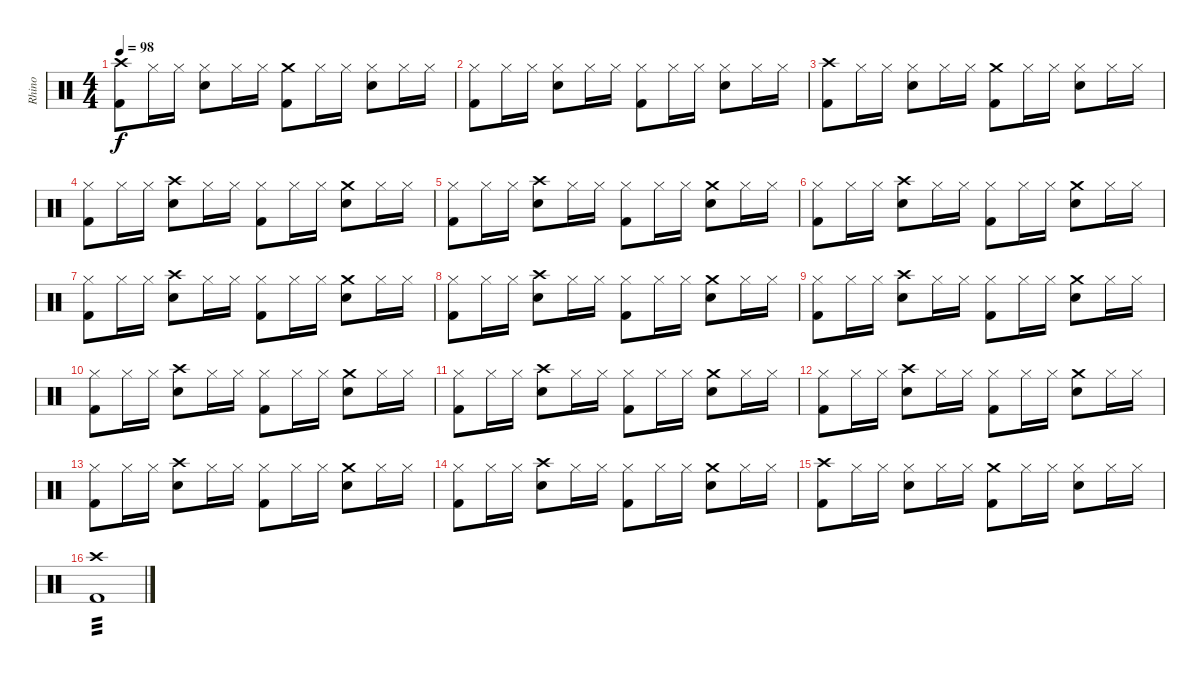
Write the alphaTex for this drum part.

\track ("Rhino" "Rhino") {instrument percussion}
\staff {score}
\articulation defaults
\ts (4 4)
\tempo 98
\clef neutral
\ks c
("Crash high (hit)" "Kick (hit) 2").8{dy f} "Hi-Hat (closed)".16 "Hi-Hat (closed)".16 ("Hi-Hat (closed)" "Snare (hit) 2").8 "Hi-Hat (closed)".16 "Hi-Hat (closed)".16 ("Crash medium (hit)" "Kick (hit) 2").8 "Hi-Hat (closed)".16 "Hi-Hat (closed)".16 ("Hi-Hat (closed)" "Snare (hit) 2").8 "Hi-Hat (closed)".16 "Hi-Hat (closed)".16 |
("Hi-Hat (closed)" "Kick (hit) 2").8 "Hi-Hat (closed)".16 "Hi-Hat (closed)".16 ("Hi-Hat (closed)" "Snare (hit) 2").8 "Hi-Hat (closed)".16 "Hi-Hat (closed)".16 ("Hi-Hat (closed)" "Kick (hit) 2").8 "Hi-Hat (closed)".16 "Hi-Hat (closed)".16 ("Hi-Hat (closed)" "Snare (hit) 2").8 "Hi-Hat (closed)".16 "Hi-Hat (closed)".16 |
("Crash high (hit)" "Kick (hit) 2").8 "Hi-Hat (closed)".16 "Hi-Hat (closed)".16 ("Hi-Hat (closed)" "Snare (hit) 2").8 "Hi-Hat (closed)".16 "Hi-Hat (closed)".16 ("Crash medium (hit)" "Kick (hit) 2").8 "Hi-Hat (closed)".16 "Hi-Hat (closed)".16 ("Hi-Hat (closed)" "Snare (hit) 2").8 "Hi-Hat (closed)".16 "Hi-Hat (closed)".16 |
("Hi-Hat (closed)" "Kick (hit) 2").8 "Hi-Hat (closed)".16 "Hi-Hat (closed)".16 ("Crash high (hit)" "Snare (hit) 2").8 "Hi-Hat (closed)".16 "Hi-Hat (closed)".16 ("Hi-Hat (closed)" "Kick (hit) 2").8 "Hi-Hat (closed)".16 "Hi-Hat (closed)".16 ("Crash medium (hit)" "Snare (hit) 2").8 "Hi-Hat (closed)".16 "Hi-Hat (closed)".16 |
("Hi-Hat (closed)" "Kick (hit) 2").8 "Hi-Hat (closed)".16 "Hi-Hat (closed)".16 ("Crash high (hit)" "Snare (hit) 2").8 "Hi-Hat (closed)".16 "Hi-Hat (closed)".16 ("Hi-Hat (closed)" "Kick (hit) 2").8 "Hi-Hat (closed)".16 "Hi-Hat (closed)".16 ("Crash medium (hit)" "Snare (hit) 2").8 "Hi-Hat (closed)".16 "Hi-Hat (closed)".16 |
("Hi-Hat (closed)" "Kick (hit) 2").8 "Hi-Hat (closed)".16 "Hi-Hat (closed)".16 ("Crash high (hit)" "Snare (hit) 2").8 "Hi-Hat (closed)".16 "Hi-Hat (closed)".16 ("Hi-Hat (closed)" "Kick (hit) 2").8 "Hi-Hat (closed)".16 "Hi-Hat (closed)".16 ("Crash medium (hit)" "Snare (hit) 2").8 "Hi-Hat (closed)".16 "Hi-Hat (closed)".16 |
("Hi-Hat (closed)" "Kick (hit) 2").8 "Hi-Hat (closed)".16 "Hi-Hat (closed)".16 ("Crash high (hit)" "Snare (hit) 2").8 "Hi-Hat (closed)".16 "Hi-Hat (closed)".16 ("Hi-Hat (closed)" "Kick (hit) 2").8 "Hi-Hat (closed)".16 "Hi-Hat (closed)".16 ("Crash medium (hit)" "Snare (hit) 2").8 "Hi-Hat (closed)".16 "Hi-Hat (closed)".16 |
("Hi-Hat (closed)" "Kick (hit) 2").8 "Hi-Hat (closed)".16 "Hi-Hat (closed)".16 ("Crash high (hit)" "Snare (hit) 2").8 "Hi-Hat (closed)".16 "Hi-Hat (closed)".16 ("Hi-Hat (closed)" "Kick (hit) 2").8 "Hi-Hat (closed)".16 "Hi-Hat (closed)".16 ("Crash medium (hit)" "Snare (hit) 2").8 "Hi-Hat (closed)".16 "Hi-Hat (closed)".16 |
("Hi-Hat (closed)" "Kick (hit) 2").8 "Hi-Hat (closed)".16 "Hi-Hat (closed)".16 ("Crash high (hit)" "Snare (hit) 2").8 "Hi-Hat (closed)".16 "Hi-Hat (closed)".16 ("Hi-Hat (closed)" "Kick (hit) 2").8 "Hi-Hat (closed)".16 "Hi-Hat (closed)".16 ("Crash medium (hit)" "Snare (hit) 2").8 "Hi-Hat (closed)".16 "Hi-Hat (closed)".16 |
("Hi-Hat (closed)" "Kick (hit) 2").8 "Hi-Hat (closed)".16 "Hi-Hat (closed)".16 ("Crash high (hit)" "Snare (hit) 2").8 "Hi-Hat (closed)".16 "Hi-Hat (closed)".16 ("Hi-Hat (closed)" "Kick (hit) 2").8 "Hi-Hat (closed)".16 "Hi-Hat (closed)".16 ("Crash medium (hit)" "Snare (hit) 2").8 "Hi-Hat (closed)".16 "Hi-Hat (closed)".16 |
("Hi-Hat (closed)" "Kick (hit) 2").8 "Hi-Hat (closed)".16 "Hi-Hat (closed)".16 ("Crash high (hit)" "Snare (hit) 2").8 "Hi-Hat (closed)".16 "Hi-Hat (closed)".16 ("Hi-Hat (closed)" "Kick (hit) 2").8 "Hi-Hat (closed)".16 "Hi-Hat (closed)".16 ("Crash medium (hit)" "Snare (hit) 2").8 "Hi-Hat (closed)".16 "Hi-Hat (closed)".16 |
("Hi-Hat (closed)" "Kick (hit) 2").8 "Hi-Hat (closed)".16 "Hi-Hat (closed)".16 ("Crash high (hit)" "Snare (hit) 2").8 "Hi-Hat (closed)".16 "Hi-Hat (closed)".16 ("Hi-Hat (closed)" "Kick (hit) 2").8 "Hi-Hat (closed)".16 "Hi-Hat (closed)".16 ("Crash medium (hit)" "Snare (hit) 2").8 "Hi-Hat (closed)".16 "Hi-Hat (closed)".16 |
("Hi-Hat (closed)" "Kick (hit) 2").8 "Hi-Hat (closed)".16 "Hi-Hat (closed)".16 ("Crash high (hit)" "Snare (hit) 2").8 "Hi-Hat (closed)".16 "Hi-Hat (closed)".16 ("Hi-Hat (closed)" "Kick (hit) 2").8 "Hi-Hat (closed)".16 "Hi-Hat (closed)".16 ("Crash medium (hit)" "Snare (hit) 2").8 "Hi-Hat (closed)".16 "Hi-Hat (closed)".16 |
("Hi-Hat (closed)" "Kick (hit) 2").8 "Hi-Hat (closed)".16 "Hi-Hat (closed)".16 ("Crash high (hit)" "Snare (hit) 2").8 "Hi-Hat (closed)".16 "Hi-Hat (closed)".16 ("Hi-Hat (closed)" "Kick (hit) 2").8 "Hi-Hat (closed)".16 "Hi-Hat (closed)".16 ("Crash medium (hit)" "Snare (hit) 2").8 "Hi-Hat (closed)".16 "Hi-Hat (closed)".16 |
("Crash high (hit)" "Kick (hit) 2").8 "Hi-Hat (closed)".16 "Hi-Hat (closed)".16 ("Hi-Hat (closed)" "Snare (hit) 2").8 "Hi-Hat (closed)".16 "Hi-Hat (closed)".16 ("Crash medium (hit)" "Kick (hit) 2").8 "Hi-Hat (closed)".16 "Hi-Hat (closed)".16 ("Hi-Hat (closed)" "Snare (hit) 2").8 "Hi-Hat (closed)".16 "Hi-Hat (closed)".16 |
("Crash high (hit)" "Kick (hit) 2").1{tp 3}
